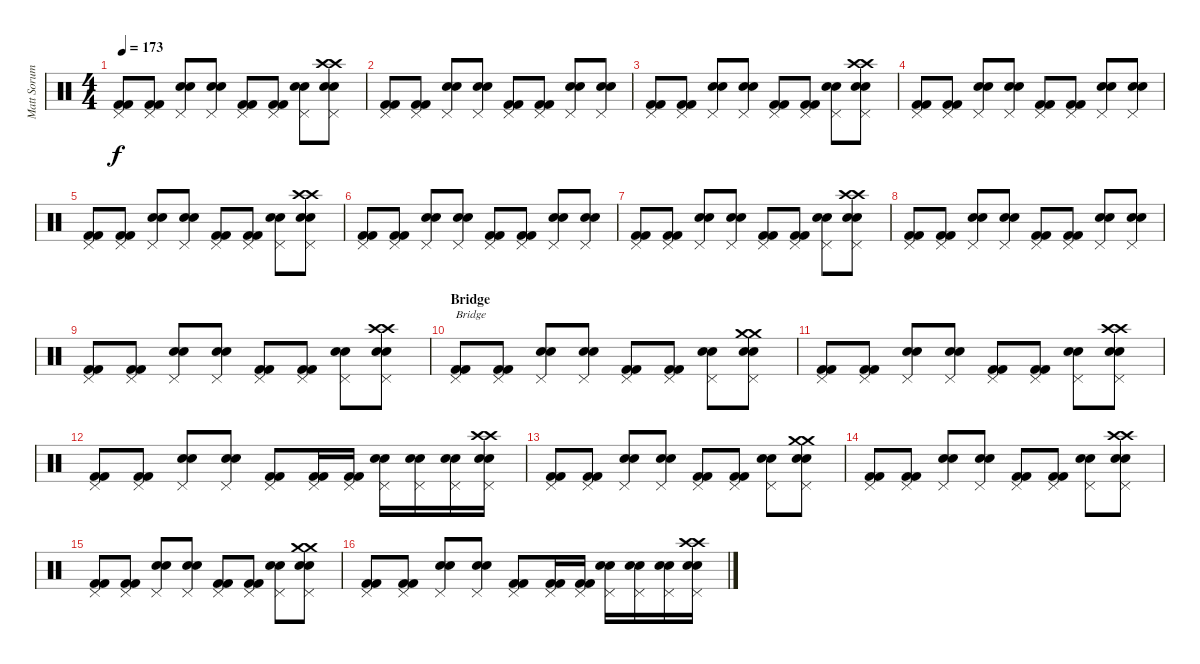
\track ("Matt Sorum" "Matt Sorum") {instrument percussion}
\staff {score}
\articulation defaults
\ts (4 4)
\tempo 173
\clef neutral
\ks c
("Pedal Hi-Hat (hit)" "Kick (hit) 2" "Kick (hit) 2").8{dy f} ("Pedal Hi-Hat (hit)" "Kick (hit) 2" "Kick (hit) 2").8 ("Pedal Hi-Hat (hit)" "Snare (hit) 2" "Snare (hit) 2").8 ("Pedal Hi-Hat (hit)" "Snare (hit) 2" "Snare (hit) 2").8 ("Pedal Hi-Hat (hit)" "Kick (hit) 2" "Kick (hit) 2").8 ("Pedal Hi-Hat (hit)" "Kick (hit) 2" "Kick (hit) 2").8 ("Pedal Hi-Hat (hit)" "Snare (hit) 2" "Snare (hit) 2").8 ("Crash high (hit)" "Crash high (hit)" "Pedal Hi-Hat (hit)" "Snare (hit) 2" "Snare (hit) 2").8 |
("Pedal Hi-Hat (hit)" "Kick (hit) 2" "Kick (hit) 2").8 ("Pedal Hi-Hat (hit)" "Kick (hit) 2" "Kick (hit) 2").8 ("Pedal Hi-Hat (hit)" "Snare (hit) 2" "Snare (hit) 2").8 ("Pedal Hi-Hat (hit)" "Snare (hit) 2" "Snare (hit) 2").8 ("Pedal Hi-Hat (hit)" "Kick (hit) 2" "Kick (hit) 2").8 ("Pedal Hi-Hat (hit)" "Kick (hit) 2" "Kick (hit) 2").8 ("Pedal Hi-Hat (hit)" "Snare (hit) 2" "Snare (hit) 2").8 ("Pedal Hi-Hat (hit)" "Snare (hit) 2" "Snare (hit) 2").8 |
("Pedal Hi-Hat (hit)" "Kick (hit) 2" "Kick (hit) 2").8 ("Pedal Hi-Hat (hit)" "Kick (hit) 2" "Kick (hit) 2").8 ("Pedal Hi-Hat (hit)" "Snare (hit) 2" "Snare (hit) 2").8 ("Pedal Hi-Hat (hit)" "Snare (hit) 2" "Snare (hit) 2").8 ("Pedal Hi-Hat (hit)" "Kick (hit) 2" "Kick (hit) 2").8 ("Pedal Hi-Hat (hit)" "Kick (hit) 2" "Kick (hit) 2").8 ("Pedal Hi-Hat (hit)" "Snare (hit) 2" "Snare (hit) 2").8 ("Crash high (hit)" "Crash high (hit)" "Pedal Hi-Hat (hit)" "Snare (hit) 2" "Snare (hit) 2").8 |
("Pedal Hi-Hat (hit)" "Kick (hit) 2" "Kick (hit) 2").8 ("Pedal Hi-Hat (hit)" "Kick (hit) 2" "Kick (hit) 2").8 ("Pedal Hi-Hat (hit)" "Snare (hit) 2" "Snare (hit) 2").8 ("Pedal Hi-Hat (hit)" "Snare (hit) 2" "Snare (hit) 2").8 ("Pedal Hi-Hat (hit)" "Kick (hit) 2" "Kick (hit) 2").8 ("Pedal Hi-Hat (hit)" "Kick (hit) 2" "Kick (hit) 2").8 ("Pedal Hi-Hat (hit)" "Snare (hit) 2" "Snare (hit) 2").8 ("Pedal Hi-Hat (hit)" "Snare (hit) 2" "Snare (hit) 2").8 |
("Pedal Hi-Hat (hit)" "Kick (hit) 2" "Kick (hit) 2").8 ("Pedal Hi-Hat (hit)" "Kick (hit) 2" "Kick (hit) 2").8 ("Pedal Hi-Hat (hit)" "Snare (hit) 2" "Snare (hit) 2").8 ("Pedal Hi-Hat (hit)" "Snare (hit) 2" "Snare (hit) 2").8 ("Pedal Hi-Hat (hit)" "Kick (hit) 2" "Kick (hit) 2").8 ("Pedal Hi-Hat (hit)" "Kick (hit) 2" "Kick (hit) 2").8 ("Pedal Hi-Hat (hit)" "Snare (hit) 2" "Snare (hit) 2").8 ("Crash high (hit)" "Crash high (hit)" "Pedal Hi-Hat (hit)" "Snare (hit) 2" "Snare (hit) 2").8 |
("Pedal Hi-Hat (hit)" "Kick (hit) 2" "Kick (hit) 2").8 ("Pedal Hi-Hat (hit)" "Kick (hit) 2" "Kick (hit) 2").8 ("Pedal Hi-Hat (hit)" "Snare (hit) 2" "Snare (hit) 2").8 ("Pedal Hi-Hat (hit)" "Snare (hit) 2" "Snare (hit) 2").8 ("Pedal Hi-Hat (hit)" "Kick (hit) 2" "Kick (hit) 2").8 ("Pedal Hi-Hat (hit)" "Kick (hit) 2" "Kick (hit) 2").8 ("Pedal Hi-Hat (hit)" "Snare (hit) 2" "Snare (hit) 2").8 ("Pedal Hi-Hat (hit)" "Snare (hit) 2" "Snare (hit) 2").8 |
("Pedal Hi-Hat (hit)" "Kick (hit) 2" "Kick (hit) 2").8 ("Pedal Hi-Hat (hit)" "Kick (hit) 2" "Kick (hit) 2").8 ("Pedal Hi-Hat (hit)" "Snare (hit) 2" "Snare (hit) 2").8 ("Pedal Hi-Hat (hit)" "Snare (hit) 2" "Snare (hit) 2").8 ("Pedal Hi-Hat (hit)" "Kick (hit) 2" "Kick (hit) 2").8 ("Pedal Hi-Hat (hit)" "Kick (hit) 2" "Kick (hit) 2").8 ("Pedal Hi-Hat (hit)" "Snare (hit) 2" "Snare (hit) 2").8 ("Crash high (hit)" "Crash high (hit)" "Pedal Hi-Hat (hit)" "Snare (hit) 2" "Snare (hit) 2").8 |
("Pedal Hi-Hat (hit)" "Kick (hit) 2" "Kick (hit) 2").8 ("Pedal Hi-Hat (hit)" "Kick (hit) 2" "Kick (hit) 2").8 ("Pedal Hi-Hat (hit)" "Snare (hit) 2" "Snare (hit) 2").8 ("Pedal Hi-Hat (hit)" "Snare (hit) 2" "Snare (hit) 2").8 ("Pedal Hi-Hat (hit)" "Kick (hit) 2" "Kick (hit) 2").8 ("Pedal Hi-Hat (hit)" "Kick (hit) 2" "Kick (hit) 2").8 ("Pedal Hi-Hat (hit)" "Snare (hit) 2" "Snare (hit) 2").8 ("Pedal Hi-Hat (hit)" "Snare (hit) 2" "Snare (hit) 2").8 |
("Pedal Hi-Hat (hit)" "Kick (hit) 2" "Kick (hit) 2").8 ("Pedal Hi-Hat (hit)" "Kick (hit) 2" "Kick (hit) 2").8 ("Pedal Hi-Hat (hit)" "Snare (hit) 2" "Snare (hit) 2").8 ("Pedal Hi-Hat (hit)" "Snare (hit) 2" "Snare (hit) 2").8 ("Pedal Hi-Hat (hit)" "Kick (hit) 2" "Kick (hit) 2").8 ("Pedal Hi-Hat (hit)" "Kick (hit) 2" "Kick (hit) 2").8 ("Pedal Hi-Hat (hit)" "Snare (hit) 2" "Snare (hit) 2").8 ("Crash high (hit)" "Crash high (hit)" "Pedal Hi-Hat (hit)" "Snare (hit) 2" "Snare (hit) 2").8 |
\section ("" "Bridge")
("Pedal Hi-Hat (hit)" "Kick (hit) 2" "Kick (hit) 2").8{txt "Bridge"} ("Pedal Hi-Hat (hit)" "Kick (hit) 2" "Kick (hit) 2").8 ("Pedal Hi-Hat (hit)" "Snare (hit) 2" "Snare (hit) 2").8 ("Pedal Hi-Hat (hit)" "Snare (hit) 2" "Snare (hit) 2").8 ("Pedal Hi-Hat (hit)" "Kick (hit) 2" "Kick (hit) 2").8 ("Pedal Hi-Hat (hit)" "Kick (hit) 2" "Kick (hit) 2").8 ("Pedal Hi-Hat (hit)" "Snare (hit) 2" "Snare (hit) 2").8 ("Crash medium (hit)" "Crash medium (hit)" "Pedal Hi-Hat (hit)" "Snare (hit) 2" "Snare (hit) 2").8 |
("Pedal Hi-Hat (hit)" "Kick (hit) 2" "Kick (hit) 2").8 ("Pedal Hi-Hat (hit)" "Kick (hit) 2" "Kick (hit) 2").8 ("Pedal Hi-Hat (hit)" "Snare (hit) 2" "Snare (hit) 2").8 ("Pedal Hi-Hat (hit)" "Snare (hit) 2" "Snare (hit) 2").8 ("Pedal Hi-Hat (hit)" "Kick (hit) 2" "Kick (hit) 2").8 ("Pedal Hi-Hat (hit)" "Kick (hit) 2" "Kick (hit) 2").8 ("Pedal Hi-Hat (hit)" "Snare (hit) 2" "Snare (hit) 2").8 ("Crash high (hit)" "Crash high (hit)" "Pedal Hi-Hat (hit)" "Snare (hit) 2" "Snare (hit) 2").8 |
("Pedal Hi-Hat (hit)" "Kick (hit) 2" "Kick (hit) 2").8 ("Pedal Hi-Hat (hit)" "Kick (hit) 2" "Kick (hit) 2").8 ("Pedal Hi-Hat (hit)" "Snare (hit) 2" "Snare (hit) 2").8 ("Pedal Hi-Hat (hit)" "Snare (hit) 2" "Snare (hit) 2").8 ("Pedal Hi-Hat (hit)" "Kick (hit) 2" "Kick (hit) 2").8 ("Pedal Hi-Hat (hit)" "Kick (hit) 2" "Kick (hit) 2").16 ("Pedal Hi-Hat (hit)" "Kick (hit) 2" "Kick (hit) 2").16 ("Pedal Hi-Hat (hit)" "Snare (hit) 2" "Snare (hit) 2").16 ("Pedal Hi-Hat (hit)" "Snare (hit) 2" "Snare (hit) 2").16 ("Pedal Hi-Hat (hit)" "Snare (hit) 2" "Snare (hit) 2").16 ("Crash high (hit)" "Crash high (hit)" "Pedal Hi-Hat (hit)" "Snare (hit) 2" "Snare (hit) 2").16 |
("Pedal Hi-Hat (hit)" "Kick (hit) 2" "Kick (hit) 2").8 ("Pedal Hi-Hat (hit)" "Kick (hit) 2" "Kick (hit) 2").8 ("Pedal Hi-Hat (hit)" "Snare (hit) 2" "Snare (hit) 2").8 ("Pedal Hi-Hat (hit)" "Snare (hit) 2" "Snare (hit) 2").8 ("Pedal Hi-Hat (hit)" "Kick (hit) 2" "Kick (hit) 2").8 ("Pedal Hi-Hat (hit)" "Kick (hit) 2" "Kick (hit) 2").8 ("Pedal Hi-Hat (hit)" "Snare (hit) 2" "Snare (hit) 2").8 ("Crash medium (hit)" "Crash medium (hit)" "Pedal Hi-Hat (hit)" "Snare (hit) 2" "Snare (hit) 2").8 |
("Pedal Hi-Hat (hit)" "Kick (hit) 2" "Kick (hit) 2").8 ("Pedal Hi-Hat (hit)" "Kick (hit) 2" "Kick (hit) 2").8 ("Pedal Hi-Hat (hit)" "Snare (hit) 2" "Snare (hit) 2").8 ("Pedal Hi-Hat (hit)" "Snare (hit) 2" "Snare (hit) 2").8 ("Pedal Hi-Hat (hit)" "Kick (hit) 2" "Kick (hit) 2").8 ("Pedal Hi-Hat (hit)" "Kick (hit) 2" "Kick (hit) 2").8 ("Pedal Hi-Hat (hit)" "Snare (hit) 2" "Snare (hit) 2").8 ("Crash high (hit)" "Crash high (hit)" "Pedal Hi-Hat (hit)" "Snare (hit) 2" "Snare (hit) 2").8 |
("Pedal Hi-Hat (hit)" "Kick (hit) 2" "Kick (hit) 2").8 ("Pedal Hi-Hat (hit)" "Kick (hit) 2" "Kick (hit) 2").8 ("Pedal Hi-Hat (hit)" "Snare (hit) 2" "Snare (hit) 2").8 ("Pedal Hi-Hat (hit)" "Snare (hit) 2" "Snare (hit) 2").8 ("Pedal Hi-Hat (hit)" "Kick (hit) 2" "Kick (hit) 2").8 ("Pedal Hi-Hat (hit)" "Kick (hit) 2" "Kick (hit) 2").8 ("Pedal Hi-Hat (hit)" "Snare (hit) 2" "Snare (hit) 2").8 ("Crash medium (hit)" "Crash medium (hit)" "Pedal Hi-Hat (hit)" "Snare (hit) 2" "Snare (hit) 2").8 |
("Pedal Hi-Hat (hit)" "Kick (hit) 2" "Kick (hit) 2").8 ("Pedal Hi-Hat (hit)" "Kick (hit) 2" "Kick (hit) 2").8 ("Pedal Hi-Hat (hit)" "Snare (hit) 2" "Snare (hit) 2").8 ("Pedal Hi-Hat (hit)" "Snare (hit) 2" "Snare (hit) 2").8 ("Pedal Hi-Hat (hit)" "Kick (hit) 2" "Kick (hit) 2").8 ("Pedal Hi-Hat (hit)" "Kick (hit) 2" "Kick (hit) 2").16 ("Pedal Hi-Hat (hit)" "Kick (hit) 2" "Kick (hit) 2").16 ("Pedal Hi-Hat (hit)" "Snare (hit) 2" "Snare (hit) 2").16 ("Pedal Hi-Hat (hit)" "Snare (hit) 2" "Snare (hit) 2").16 ("Pedal Hi-Hat (hit)" "Snare (hit) 2" "Snare (hit) 2").16 ("Crash high (hit)" "Crash high (hit)" "Pedal Hi-Hat (hit)" "Snare (hit) 2" "Snare (hit) 2").16
